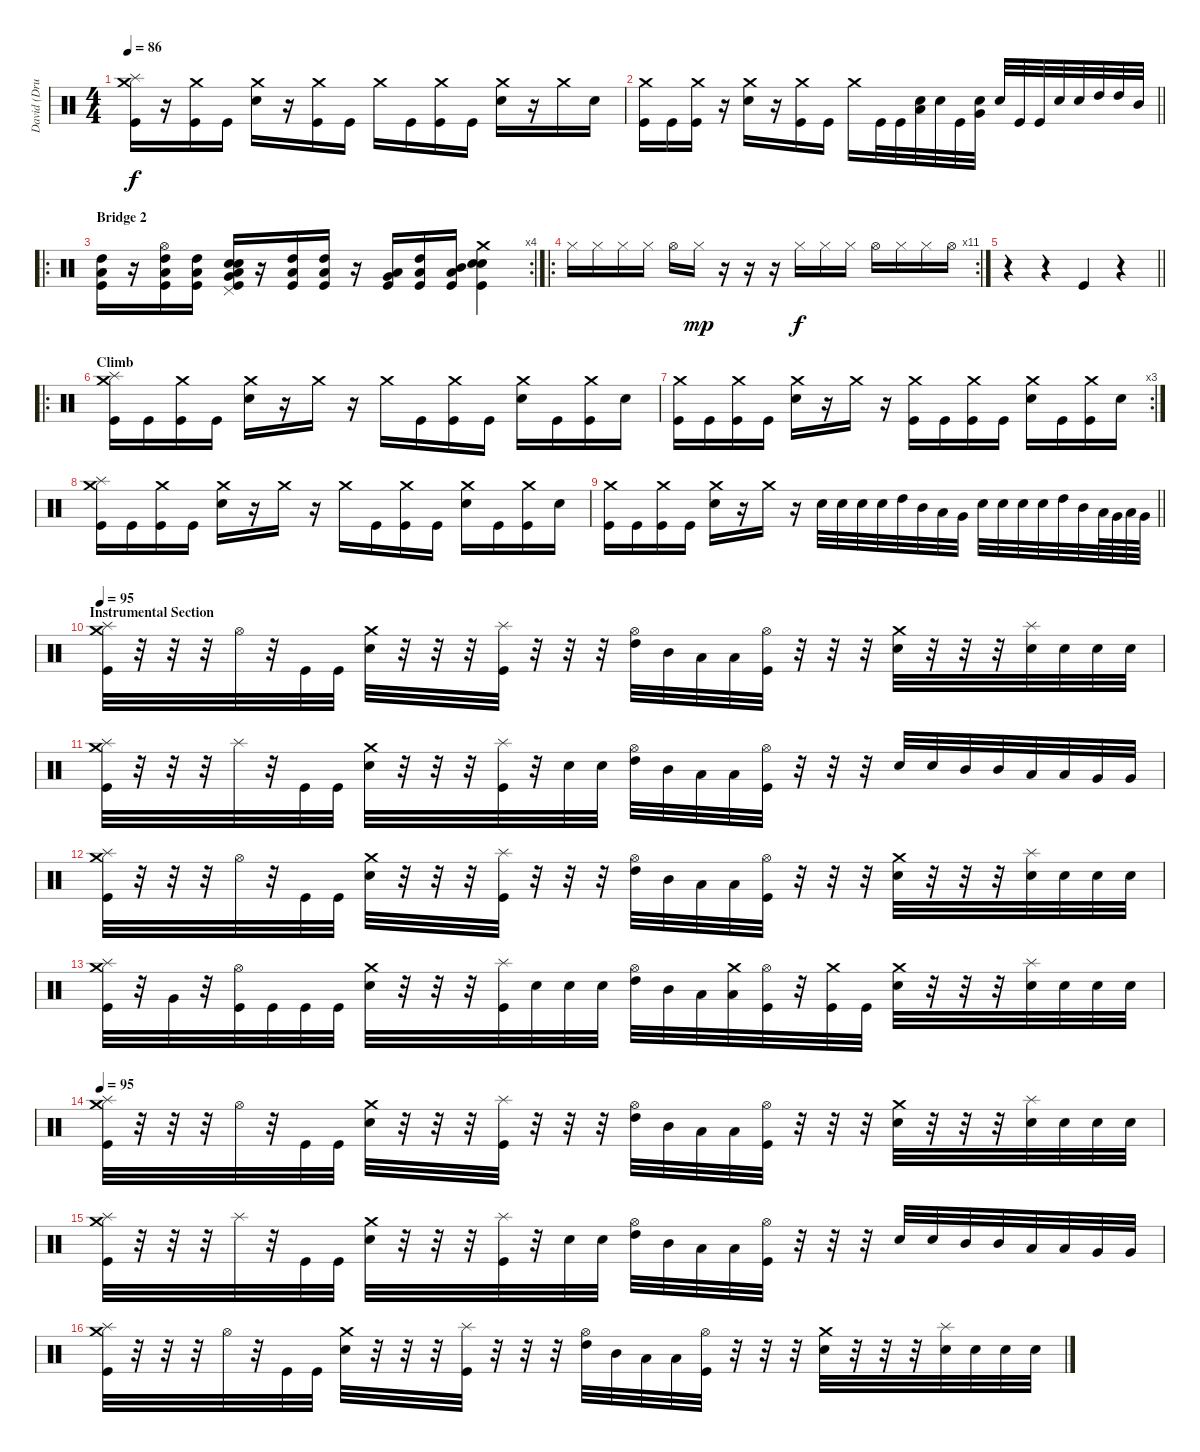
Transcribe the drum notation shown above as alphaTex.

\track ("David (Drums)" "David (Dru") {instrument percussion}
\staff {score}
\articulation defaults
\ts (4 4)
\tempo 86
\clef neutral
\ks c
("Splash (hit)" "Crash medium (hit)" "Kick (hit)").16{dy f} r.16 ("Crash medium (hit)" "Kick (hit)").16 "Kick (hit)".16 ("Crash medium (hit)" "Electric Snare (hit)").16 r.16 ("Crash medium (hit)" "Kick (hit)").16 "Kick (hit)".16 "Crash medium (hit)".16 "Kick (hit)".16 ("Crash medium (hit)" "Kick (hit)").16 "Kick (hit)".16 ("Crash medium (hit)" "Electric Snare (hit)").16 r.16 "Crash medium (hit)".16 "Electric Snare (hit)".16 |
\barLineRight lightlight
("Crash medium (hit)" "Kick (hit)").16 "Kick (hit)".16 ("Crash medium (hit)" "Kick (hit)").16 r.16 ("Crash medium (hit)" "Electric Snare (hit)").16 r.16 ("Crash medium (hit)" "Kick (hit)").16 "Kick (hit)".16 "Crash medium (hit)".16 "Kick (hit)".32 "Kick (hit)".32 ("Low Floor Tom (hit)" "Electric Snare (hit)").32 "Electric Snare (hit)".32 "Kick (hit)".32 ("Very Low Tom (hit)" "Electric Snare (hit)").32 "Electric Snare (hit)".32 "Kick (hit)".32 "Kick (hit)".32 "Electric Snare (hit)".32 "Electric Snare (hit)".32 "High Tom (hit)".32 "High Tom (hit)".32 "Mid Tom (hit)".32 |
\ro
\rc 4
\section ("" "Bridge 2")
("Low Floor Tom (hit)" "High Tom (hit)" "Kick (hit)").16 r.16 ("Hi-Hat (open)" "Low Floor Tom (hit)" "High Tom (hit)" "Kick (hit)").16 ("Low Floor Tom (hit)" "High Tom (hit)" "Kick (hit)").16 ("Pedal Hi-Hat (hit)" "Low Floor Tom (hit)" "Electric Snare (hit)" "Kick (hit)" "Snare (hit) 2" "Very Low Tom (hit)").16 r.16 ("Low Floor Tom (hit)" "High Tom (hit)" "Kick (hit)").16 ("Low Floor Tom (hit)" "High Tom (hit)" "Kick (hit)").16 r.16 ("Low Floor Tom (hit)" "Very Low Tom (hit)" "Kick (hit)").16 ("Low Floor Tom (hit)" "High Tom (hit)" "Kick (hit)").16 ("Low Floor Tom (hit)" "Mid Tom (hit)" "Kick (hit)").16 ("Crash medium (hit)" "Snare (hit) 2" "Electric Snare (hit)" "Kick (hit)").4 |
\ro
\rc 11 "Hi-Hat (closed)".16 "Hi-Hat (closed)".16 "Hi-Hat (closed)".16 "Hi-Hat (closed)".16 "Hi-Hat (open)".16 "Hi-Hat (closed)".16{dy mp}
r.16 r.16 r.16 "Hi-Hat (closed)".16{dy f} "Hi-Hat (closed)".16 "Hi-Hat (closed)".16 "Hi-Hat (open)".16 "Hi-Hat (closed)".16 "Hi-Hat (closed)".16 "Hi-Hat (open)".16 |
\barLineRight lightlight
r.4 r.4 "Kick (hit)".4 r.4 |
\ro
\section ("" "Climb")
("Splash (hit)" "Kick (hit)" "Crash medium (hit)").16 "Kick (hit)".16 ("Kick (hit)" "Crash medium (hit)").16 "Kick (hit)".16 ("Electric Snare (hit)" "Crash medium (hit)").16 r.16 "Crash medium (hit)".16 r.16 "Crash medium (hit)".16 "Kick (hit)".16 ("Kick (hit)" "Crash medium (hit)").16 "Kick (hit)".16 ("Electric Snare (hit)" "Crash medium (hit)").16 "Kick (hit)".16 ("Kick (hit)" "Crash medium (hit)").16 "Electric Snare (hit)".16 |
\rc 3
("Kick (hit)" "Crash medium (hit)").16 "Kick (hit)".16 ("Kick (hit)" "Crash medium (hit)").16 "Kick (hit)".16 ("Electric Snare (hit)" "Crash medium (hit)").16 r.16 "Crash medium (hit)".16 r.16 ("Kick (hit)" "Crash medium (hit)").16 "Kick (hit)".16 ("Kick (hit)" "Crash medium (hit)").16 "Kick (hit)".16 ("Electric Snare (hit)" "Crash medium (hit)").16 "Kick (hit)".16 ("Kick (hit)" "Crash medium (hit)").16 "Electric Snare (hit)".16 |
("Splash (hit)" "Kick (hit)" "Crash medium (hit)").16 "Kick (hit)".16 ("Kick (hit)" "Crash medium (hit)").16 "Kick (hit)".16 ("Electric Snare (hit)" "Crash medium (hit)").16 r.16 "Crash medium (hit)".16 r.16 "Crash medium (hit)".16 "Kick (hit)".16 ("Kick (hit)" "Crash medium (hit)").16 "Kick (hit)".16 ("Electric Snare (hit)" "Crash medium (hit)").16 "Kick (hit)".16 ("Kick (hit)" "Crash medium (hit)").16 "Electric Snare (hit)".16 |
\barLineRight lightlight
("Kick (hit)" "Crash medium (hit)").16 "Kick (hit)".16 ("Kick (hit)" "Crash medium (hit)").16 "Kick (hit)".16 ("Electric Snare (hit)" "Crash medium (hit)").16 r.16 "Crash medium (hit)".16 r.16 "Electric Snare (hit)".32 "Electric Snare (hit)".32 "Electric Snare (hit)".32 "Electric Snare (hit)".32 "High Tom (hit)".32 "Mid Tom (hit)".32 "Low Tom (hit)".32 "Very Low Tom (hit)".32 "Electric Snare (hit)".32 "Electric Snare (hit)".32 "Electric Snare (hit)".32 "Electric Snare (hit)".32 "High Tom (hit)".32 "Mid Tom (hit)".32 "Low Tom (hit)".64 "Very Low Tom (hit)".64 "Low Floor Tom (hit)".64 "Very Low Tom (hit)".64 |
\section ("" "Instrumental Section")
\tempo 95
("Splash (hit)" "Kick (hit)" "Crash medium (hit)").32 r.32 r.32 r.32 "Hi-Hat (open)".32 r.32 "Kick (hit)".32 "Kick (hit)".32 ("Crash medium (hit)" "Electric Snare (hit)").32 r.32 r.32 r.32 ("Splash (hit)" "Kick (hit)").32 r.32 r.32 r.32 ("Hi-Hat (open)" "High Tom (hit)").32 "Mid Tom (hit)".32 "Low Tom (hit)".32 "Low Floor Tom (hit)".32 ("Kick (hit)" "Hi-Hat (open)").32 r.32 r.32 r.32 ("Electric Snare (hit)" "Crash medium (hit)").32 r.32 r.32 r.32 ("Splash (hit)" "Electric Snare (hit)").32 "Electric Snare (hit)".32 "Electric Snare (hit)".32 "Electric Snare (hit)".32 |
("Splash (hit)" "Kick (hit)" "Crash medium (hit)").32 r.32 r.32 r.32 "Splash (hit)".32 r.32 "Kick (hit)".32 "Kick (hit)".32 ("Crash medium (hit)" "Electric Snare (hit)").32 r.32 r.32 r.32 ("Splash (hit)" "Kick (hit)").32 r.32 "Electric Snare (hit)".32 "Electric Snare (hit)".32 ("Hi-Hat (open)" "High Tom (hit)").32 "Mid Tom (hit)".32 "Low Tom (hit)".32 "Low Floor Tom (hit)".32 ("Kick (hit)" "Hi-Hat (open)").32 r.32 r.32 r.32 "Electric Snare (hit)".32 "Electric Snare (hit)".32 "Mid Tom (hit)".32 "Mid Tom (hit)".32 "Low Tom (hit)".32 "Low Tom (hit)".32 "Very Low Tom (hit)".32 "Very Low Tom (hit)".32 |
("Splash (hit)" "Kick (hit)" "Crash medium (hit)").32 r.32 r.32 r.32 "Hi-Hat (open)".32 r.32 "Kick (hit)".32 "Kick (hit)".32 ("Crash medium (hit)" "Electric Snare (hit)").32 r.32 r.32 r.32 ("Splash (hit)" "Kick (hit)").32 r.32 r.32 r.32 ("Hi-Hat (open)" "High Tom (hit)").32 "Mid Tom (hit)".32 "Low Tom (hit)".32 "Low Floor Tom (hit)".32 ("Kick (hit)" "Hi-Hat (open)").32 r.32 r.32 r.32 ("Electric Snare (hit)" "Crash medium (hit)").32 r.32 r.32 r.32 ("Splash (hit)" "Electric Snare (hit)").32 "Electric Snare (hit)".32 "Electric Snare (hit)".32 "Electric Snare (hit)".32 |
("Splash (hit)" "Kick (hit)" "Crash medium (hit)").32 r.32 "Very Low Tom (hit)".32 r.32 ("Kick (hit)" "Hi-Hat (open)").32 "Kick (hit)".32 "Kick (hit)".32 "Kick (hit)".32 ("Crash medium (hit)" "Electric Snare (hit)").32 r.32 r.32 r.32 ("Splash (hit)" "Kick (hit)").32 "Electric Snare (hit)".32 "Electric Snare (hit)".32 "Electric Snare (hit)".32 ("Hi-Hat (open)" "High Tom (hit)").32 "Mid Tom (hit)".32 "Low Tom (hit)".32 ("Crash medium (hit)" "Low Floor Tom (hit)").32 ("Kick (hit)" "Hi-Hat (open)").32 r.32 ("Crash medium (hit)" "Kick (hit)").32 "Kick (hit)".32 ("Electric Snare (hit)" "Crash medium (hit)").32 r.32 r.32 r.32 ("Splash (hit)" "Electric Snare (hit)").32 "Electric Snare (hit)".32 "Electric Snare (hit)".32 "Electric Snare (hit)".32 |
\tempo 95
("Splash (hit)" "Kick (hit)" "Crash medium (hit)").32 r.32 r.32 r.32 "Hi-Hat (open)".32 r.32 "Kick (hit)".32 "Kick (hit)".32 ("Crash medium (hit)" "Electric Snare (hit)").32 r.32 r.32 r.32 ("Splash (hit)" "Kick (hit)").32 r.32 r.32 r.32 ("Hi-Hat (open)" "High Tom (hit)").32 "Mid Tom (hit)".32 "Low Tom (hit)".32 "Low Floor Tom (hit)".32 ("Kick (hit)" "Hi-Hat (open)").32 r.32 r.32 r.32 ("Electric Snare (hit)" "Crash medium (hit)").32 r.32 r.32 r.32 ("Splash (hit)" "Electric Snare (hit)").32 "Electric Snare (hit)".32 "Electric Snare (hit)".32 "Electric Snare (hit)".32 |
("Splash (hit)" "Kick (hit)" "Crash medium (hit)").32 r.32 r.32 r.32 "Splash (hit)".32 r.32 "Kick (hit)".32 "Kick (hit)".32 ("Crash medium (hit)" "Electric Snare (hit)").32 r.32 r.32 r.32 ("Splash (hit)" "Kick (hit)").32 r.32 "Electric Snare (hit)".32 "Electric Snare (hit)".32 ("Hi-Hat (open)" "High Tom (hit)").32 "Mid Tom (hit)".32 "Low Tom (hit)".32 "Low Floor Tom (hit)".32 ("Kick (hit)" "Hi-Hat (open)").32 r.32 r.32 r.32 "Electric Snare (hit)".32 "Electric Snare (hit)".32 "Mid Tom (hit)".32 "Mid Tom (hit)".32 "Low Tom (hit)".32 "Low Tom (hit)".32 "Very Low Tom (hit)".32 "Very Low Tom (hit)".32 |
("Splash (hit)" "Kick (hit)" "Crash medium (hit)").32 r.32 r.32 r.32 "Hi-Hat (open)".32 r.32 "Kick (hit)".32 "Kick (hit)".32 ("Crash medium (hit)" "Electric Snare (hit)").32 r.32 r.32 r.32 ("Splash (hit)" "Kick (hit)").32 r.32 r.32 r.32 ("Hi-Hat (open)" "High Tom (hit)").32 "Mid Tom (hit)".32 "Low Tom (hit)".32 "Low Floor Tom (hit)".32 ("Kick (hit)" "Hi-Hat (open)").32 r.32 r.32 r.32 ("Electric Snare (hit)" "Crash medium (hit)").32 r.32 r.32 r.32 ("Splash (hit)" "Electric Snare (hit)").32 "Electric Snare (hit)".32 "Electric Snare (hit)".32 "Electric Snare (hit)".32
